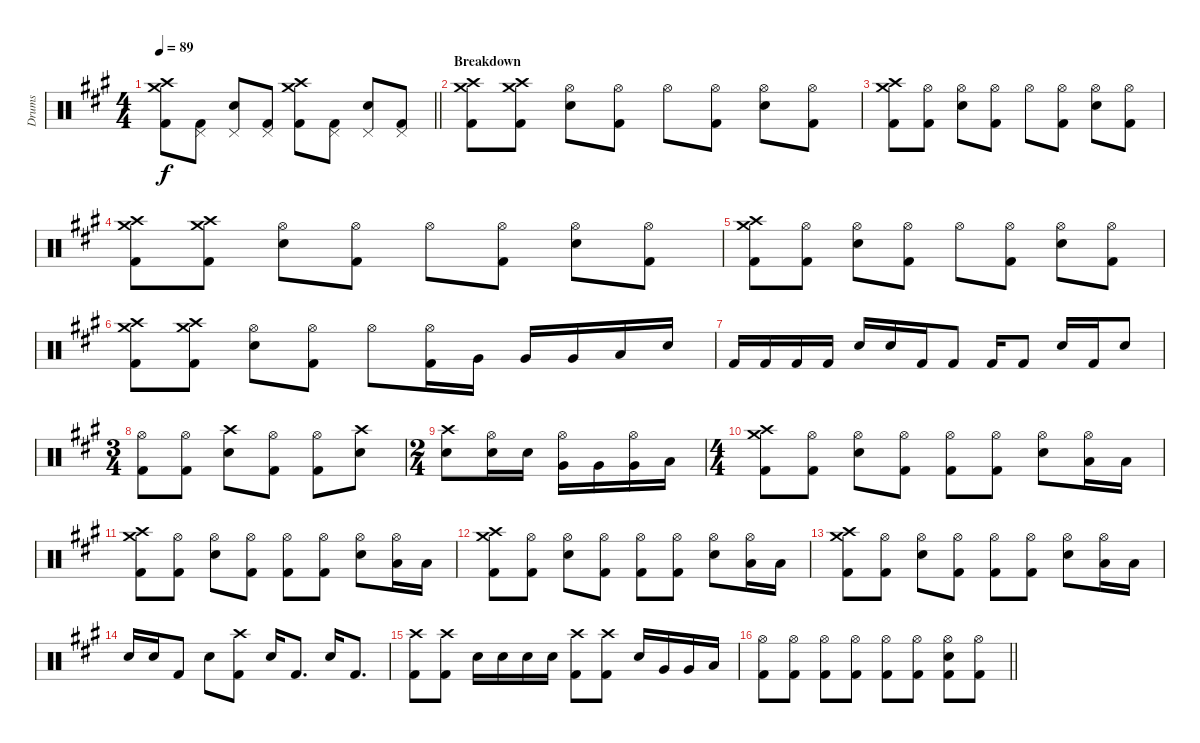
\track ("Drums" "Drums") {instrument percussion}
\staff {score}
\articulation defaults
\ts (4 4)
\tempo 89
\clef neutral
\barLineRight lightlight
\ks a
("Crash high (hit)" "Crash medium (hit)" "Kick (hit) 2").8{dy f} ("Pedal Hi-Hat (hit)" "Kick (hit) 2").8 ("Pedal Hi-Hat (hit)" "Snare (hit) 2").8 ("Pedal Hi-Hat (hit)" "Kick (hit) 2").8 ("Crash high (hit)" "Crash medium (hit)" "Kick (hit) 2").8 ("Pedal Hi-Hat (hit)" "Kick (hit) 2").8 ("Pedal Hi-Hat (hit)" "Snare (hit) 2").8 ("Pedal Hi-Hat (hit)" "Kick (hit) 2").8 |
\section ("" "Breakdown")
("Crash high (hit)" "Crash medium (hit)" "Kick (hit) 2").8 ("Crash high (hit)" "Crash medium (hit)" "Kick (hit) 2").8 ("Hi-Hat (open)" "Snare (hit) 2").8 ("Hi-Hat (open)" "Kick (hit) 2").8 "Hi-Hat (open)".8 ("Hi-Hat (open)" "Kick (hit) 2").8 ("Hi-Hat (open)" "Snare (hit) 2").8 ("Hi-Hat (open)" "Kick (hit) 2").8 |
("Crash high (hit)" "Crash medium (hit)" "Kick (hit) 2").8 ("Hi-Hat (open)" "Kick (hit) 2").8 ("Hi-Hat (open)" "Snare (hit) 2").8 ("Hi-Hat (open)" "Kick (hit) 2").8 "Hi-Hat (open)".8 ("Hi-Hat (open)" "Kick (hit) 2").8 ("Hi-Hat (open)" "Snare (hit) 2").8 ("Hi-Hat (open)" "Kick (hit) 2").8 |
("Crash high (hit)" "Crash medium (hit)" "Kick (hit) 2").8 ("Crash high (hit)" "Crash medium (hit)" "Kick (hit) 2").8 ("Hi-Hat (open)" "Snare (hit) 2").8 ("Hi-Hat (open)" "Kick (hit) 2").8 "Hi-Hat (open)".8 ("Hi-Hat (open)" "Kick (hit) 2").8 ("Hi-Hat (open)" "Snare (hit) 2").8 ("Hi-Hat (open)" "Kick (hit) 2").8 |
("Crash high (hit)" "Crash medium (hit)" "Kick (hit) 2").8 ("Hi-Hat (open)" "Kick (hit) 2").8 ("Hi-Hat (open)" "Snare (hit) 2").8 ("Hi-Hat (open)" "Kick (hit) 2").8 "Hi-Hat (open)".8 ("Hi-Hat (open)" "Kick (hit) 2").8 ("Hi-Hat (open)" "Snare (hit) 2").8 ("Hi-Hat (open)" "Kick (hit) 2").8 |
("Crash high (hit)" "Crash medium (hit)" "Kick (hit) 2").8 ("Crash high (hit)" "Crash medium (hit)" "Kick (hit) 2").8 ("Hi-Hat (open)" "Snare (hit) 2").8 ("Hi-Hat (open)" "Kick (hit) 2").8 "Hi-Hat (open)".8 ("Hi-Hat (open)" "Kick (hit) 2").16 "Very Low Tom (hit)".16 "Very Low Tom (hit)".16 "Very Low Tom (hit)".16 "Low Floor Tom (hit)".16 "Snare (hit) 2".16 |
"Kick (hit) 2".16 "Kick (hit) 2".16 "Kick (hit) 2".16 "Kick (hit) 2".16 "Snare (hit) 2".16 "Snare (hit) 2".16 "Kick (hit) 2".16 "Kick (hit) 2".8 "Kick (hit) 2".16 "Kick (hit) 2".8 "Snare (hit) 2".16 "Kick (hit) 2".16 "Snare (hit) 2".8 |
\ts (3 4)
("Hi-Hat (open)" "Kick (hit) 2").8 ("Hi-Hat (open)" "Kick (hit) 2").8 ("Crash high (hit)" "Snare (hit) 2").8 ("Hi-Hat (open)" "Kick (hit) 2").8 ("Hi-Hat (open)" "Kick (hit) 2").8 ("Crash high (hit)" "Snare (hit) 2").8 |
\ts (2 4)
("Crash high (hit)" "Snare (hit) 2").8 ("Hi-Hat (open)" "Snare (hit) 2").16 "Snare (hit) 2".16 ("Hi-Hat (open)" "Very Low Tom (hit)").16 "Very Low Tom (hit)".16 ("Hi-Hat (open)" "Very Low Tom (hit)").16 "Low Floor Tom (hit)".16 |
\ts (4 4)
("Crash high (hit)" "Crash medium (hit)" "Kick (hit) 2").8 ("Hi-Hat (open)" "Kick (hit) 2").8 ("Hi-Hat (open)" "Snare (hit) 2").8 ("Hi-Hat (open)" "Kick (hit) 2").8 ("Hi-Hat (open)" "Kick (hit) 2").8 ("Hi-Hat (open)" "Kick (hit) 2").8 ("Hi-Hat (open)" "Snare (hit) 2").8 ("Hi-Hat (open)" "Low Tom (hit)").16 "Low Tom (hit)".16 |
("Crash high (hit)" "Crash medium (hit)" "Kick (hit) 2").8 ("Hi-Hat (open)" "Kick (hit) 2").8 ("Hi-Hat (open)" "Snare (hit) 2").8 ("Hi-Hat (open)" "Kick (hit) 2").8 ("Hi-Hat (open)" "Kick (hit) 2").8 ("Hi-Hat (open)" "Kick (hit) 2").8 ("Hi-Hat (open)" "Snare (hit) 2").8 ("Hi-Hat (open)" "Low Tom (hit)").16 "Low Tom (hit)".16 |
("Crash high (hit)" "Crash medium (hit)" "Kick (hit) 2").8 ("Hi-Hat (open)" "Kick (hit) 2").8 ("Hi-Hat (open)" "Snare (hit) 2").8 ("Hi-Hat (open)" "Kick (hit) 2").8 ("Hi-Hat (open)" "Kick (hit) 2").8 ("Hi-Hat (open)" "Kick (hit) 2").8 ("Hi-Hat (open)" "Snare (hit) 2").8 ("Hi-Hat (open)" "Low Tom (hit)").16 "Low Tom (hit)".16 |
("Crash high (hit)" "Crash medium (hit)" "Kick (hit) 2").8 ("Hi-Hat (open)" "Kick (hit) 2").8 ("Hi-Hat (open)" "Snare (hit) 2").8 ("Hi-Hat (open)" "Kick (hit) 2").8 ("Hi-Hat (open)" "Kick (hit) 2").8 ("Hi-Hat (open)" "Kick (hit) 2").8 ("Hi-Hat (open)" "Snare (hit) 2").8 ("Hi-Hat (open)" "Low Tom (hit)").16 "Low Tom (hit)".16 |
"Snare (hit) 2".16 "Snare (hit) 2".16 "Kick (hit) 2".8 "Snare (hit) 2".8 ("Crash high (hit)" "Kick (hit) 2").8 "Snare (hit) 2".16 "Kick (hit) 2".8{d} "Snare (hit) 2".16 "Kick (hit) 2".8{d} |
("Crash high (hit)" "Kick (hit) 2").8 ("Crash high (hit)" "Kick (hit) 2").8 "Snare (hit) 2".16 "Snare (hit) 2".16 "Snare (hit) 2".16 "Snare (hit) 2".16 ("Crash high (hit)" "Kick (hit) 2").8 ("Crash high (hit)" "Kick (hit) 2").8 "Snare (hit) 2".16 "Very Low Tom (hit)".16 "Very Low Tom (hit)".16 "Low Floor Tom (hit)".16 |
\barLineRight lightlight
("Hi-Hat (open)" "Kick (hit) 2").8 ("Hi-Hat (open)" "Kick (hit) 2").8 ("Hi-Hat (open)" "Kick (hit) 2").8 ("Hi-Hat (open)" "Kick (hit) 2").8 ("Hi-Hat (open)" "Kick (hit) 2").8 ("Hi-Hat (open)" "Kick (hit) 2").8 ("Hi-Hat (open)" "Snare (hit) 2" "Kick (hit) 2").8 ("Hi-Hat (open)" "Kick (hit) 2").8
